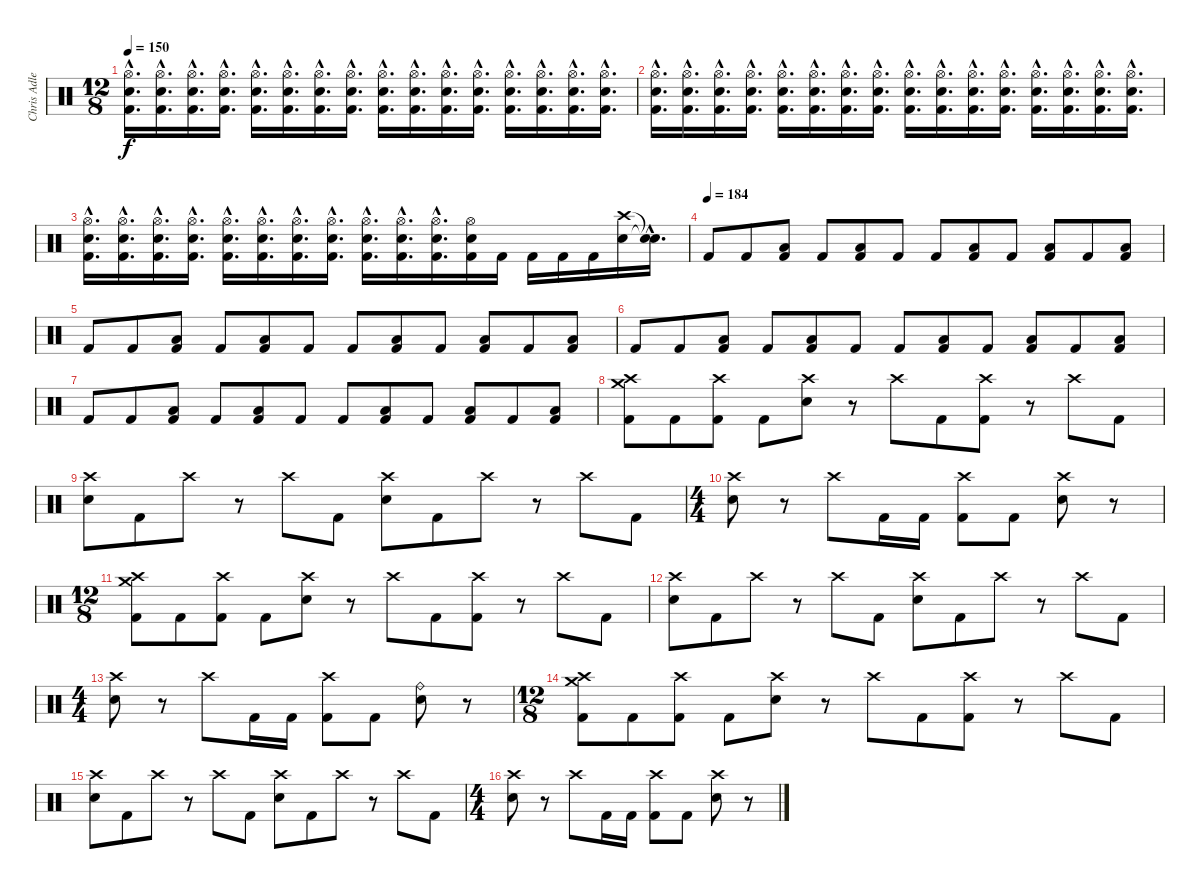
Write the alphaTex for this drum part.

\track ("Chris Adler" "Chris Adle") {instrument percussion}
\staff {score}
\articulation defaults
\ts (12 8)
\tempo 150
\clef neutral
\ks c
("Hi-Hat (open)"{hac} "Electric Snare (hit)"{hac} "Kick (hit) 2"{hac}).16{d dy f volume 16} ("Hi-Hat (open)"{hac} "Electric Snare (hit)"{hac} "Kick (hit) 2"{hac}).16{d} ("Hi-Hat (open)"{hac} "Electric Snare (hit)"{hac} "Kick (hit) 2"{hac}).16{d} ("Hi-Hat (open)"{hac} "Electric Snare (hit)"{hac} "Kick (hit) 2"{hac}).16{d} ("Hi-Hat (open)"{hac} "Electric Snare (hit)"{hac} "Kick (hit) 2"{hac}).16{d} ("Hi-Hat (open)"{hac} "Electric Snare (hit)"{hac} "Kick (hit) 2"{hac}).16{d} ("Hi-Hat (open)"{hac} "Electric Snare (hit)"{hac} "Kick (hit) 2"{hac}).16{d} ("Hi-Hat (open)"{hac} "Electric Snare (hit)"{hac} "Kick (hit) 2"{hac}).16{d} ("Hi-Hat (open)"{hac} "Electric Snare (hit)"{hac} "Kick (hit) 2"{hac}).16{d} ("Hi-Hat (open)"{hac} "Electric Snare (hit)"{hac} "Kick (hit) 2"{hac}).16{d} ("Hi-Hat (open)"{hac} "Electric Snare (hit)"{hac} "Kick (hit) 2"{hac}).16{d} ("Hi-Hat (open)"{hac} "Electric Snare (hit)"{hac} "Kick (hit) 2"{hac}).16{d} ("Hi-Hat (open)"{hac} "Electric Snare (hit)"{hac} "Kick (hit) 2"{hac}).16{d} ("Hi-Hat (open)"{hac} "Electric Snare (hit)"{hac} "Kick (hit) 2"{hac}).16{d} ("Hi-Hat (open)"{hac} "Electric Snare (hit)"{hac} "Kick (hit) 2"{hac}).16{d} ("Hi-Hat (open)"{hac} "Electric Snare (hit)"{hac} "Kick (hit) 2"{hac}).16{d} |
("Hi-Hat (open)"{hac} "Electric Snare (hit)"{hac} "Kick (hit) 2"{hac}).16{d volume 16} ("Hi-Hat (open)"{hac} "Electric Snare (hit)"{hac} "Kick (hit) 2"{hac}).16{d} ("Hi-Hat (open)"{hac} "Electric Snare (hit)"{hac} "Kick (hit) 2"{hac}).16{d} ("Hi-Hat (open)"{hac} "Electric Snare (hit)"{hac} "Kick (hit) 2"{hac}).16{d} ("Hi-Hat (open)"{hac} "Electric Snare (hit)"{hac} "Kick (hit) 2"{hac}).16{d} ("Hi-Hat (open)"{hac} "Electric Snare (hit)"{hac} "Kick (hit) 2"{hac}).16{d} ("Hi-Hat (open)"{hac} "Electric Snare (hit)"{hac} "Kick (hit) 2"{hac}).16{d} ("Hi-Hat (open)"{hac} "Electric Snare (hit)"{hac} "Kick (hit) 2"{hac}).16{d} ("Hi-Hat (open)"{hac} "Electric Snare (hit)"{hac} "Kick (hit) 2"{hac}).16{d} ("Hi-Hat (open)"{hac} "Electric Snare (hit)"{hac} "Kick (hit) 2"{hac}).16{d} ("Hi-Hat (open)"{hac} "Electric Snare (hit)"{hac} "Kick (hit) 2"{hac}).16{d} ("Hi-Hat (open)"{hac} "Electric Snare (hit)"{hac} "Kick (hit) 2"{hac}).16{d} ("Hi-Hat (open)"{hac} "Electric Snare (hit)"{hac} "Kick (hit) 2"{hac}).16{d} ("Hi-Hat (open)"{hac} "Electric Snare (hit)"{hac} "Kick (hit) 2"{hac}).16{d} ("Hi-Hat (open)"{hac} "Electric Snare (hit)"{hac} "Kick (hit) 2"{hac}).16{d} ("Hi-Hat (open)"{hac} "Electric Snare (hit)"{hac} "Kick (hit) 2"{hac}).16{d} |
("Hi-Hat (open)"{hac} "Electric Snare (hit)"{hac} "Kick (hit) 2"{hac}).16{d volume 16} ("Hi-Hat (open)"{hac} "Electric Snare (hit)"{hac} "Kick (hit) 2"{hac}).16{d} ("Hi-Hat (open)"{hac} "Electric Snare (hit)"{hac} "Kick (hit) 2"{hac}).16{d} ("Hi-Hat (open)"{hac} "Electric Snare (hit)"{hac} "Kick (hit) 2"{hac}).16{d} ("Hi-Hat (open)"{hac} "Electric Snare (hit)"{hac} "Kick (hit) 2"{hac}).16{d} ("Hi-Hat (open)"{hac} "Electric Snare (hit)"{hac} "Kick (hit) 2"{hac}).16{d} ("Hi-Hat (open)"{hac} "Electric Snare (hit)"{hac} "Kick (hit) 2"{hac}).16{d} ("Hi-Hat (open)"{hac} "Electric Snare (hit)"{hac} "Kick (hit) 2"{hac}).16{d} ("Hi-Hat (open)"{hac} "Electric Snare (hit)"{hac} "Kick (hit) 2"{hac}).16{d} ("Hi-Hat (open)"{hac} "Electric Snare (hit)"{hac} "Kick (hit) 2"{hac}).16{d} ("Hi-Hat (open)"{hac} "Electric Snare (hit)"{hac} "Kick (hit) 2"{hac}).16{d} ("Hi-Hat (open)" "Electric Snare (hit)" "Kick (hit) 2").16 "Kick (hit) 2".16 "Kick (hit) 2".16 "Kick (hit) 2".16 "Kick (hit) 2".16 ("Crash high (hit)" "Electric Snare (hit)").16 ("Snare (hit)"{hac t} "Snare (hit)"{hac t}).16{d} |
\tempo (184)
"Kick (hit) 2".8 "Kick (hit) 2".8 ("Low Floor Tom (hit)" "Kick (hit) 2").8 "Kick (hit) 2".8 ("Low Floor Tom (hit)" "Kick (hit) 2").8 "Kick (hit) 2".8 "Kick (hit) 2".8 ("Low Floor Tom (hit)" "Kick (hit) 2").8 "Kick (hit) 2".8 ("Low Floor Tom (hit)" "Kick (hit) 2").8 "Kick (hit) 2".8 ("Low Floor Tom (hit)" "Kick (hit) 2").8 |
"Kick (hit) 2".8 "Kick (hit) 2".8 ("Low Floor Tom (hit)" "Kick (hit) 2").8 "Kick (hit) 2".8 ("Low Floor Tom (hit)" "Kick (hit) 2").8 "Kick (hit) 2".8 "Kick (hit) 2".8 ("Low Floor Tom (hit)" "Kick (hit) 2").8 "Kick (hit) 2".8 ("Low Floor Tom (hit)" "Kick (hit) 2").8 "Kick (hit) 2".8 ("Low Floor Tom (hit)" "Kick (hit) 2").8 |
"Kick (hit) 2".8 "Kick (hit) 2".8 ("Low Floor Tom (hit)" "Kick (hit) 2").8 "Kick (hit) 2".8 ("Low Floor Tom (hit)" "Kick (hit) 2").8 "Kick (hit) 2".8 "Kick (hit) 2".8 ("Low Floor Tom (hit)" "Kick (hit) 2").8 "Kick (hit) 2".8 ("Low Floor Tom (hit)" "Kick (hit) 2").8 "Kick (hit) 2".8 ("Low Floor Tom (hit)" "Kick (hit) 2").8 |
"Kick (hit) 2".8 "Kick (hit) 2".8 ("Low Floor Tom (hit)" "Kick (hit) 2").8 "Kick (hit) 2".8 ("Low Floor Tom (hit)" "Kick (hit) 2").8 "Kick (hit) 2".8 "Kick (hit) 2".8 ("Low Floor Tom (hit)" "Kick (hit) 2").8 "Kick (hit) 2".8 ("Low Floor Tom (hit)" "Kick (hit) 2").8 "Kick (hit) 2".8 ("Low Floor Tom (hit)" "Kick (hit) 2").8 |
("Crash high (hit)" "Crash medium (hit)" "Kick (hit) 2").8 "Kick (hit) 2".8 ("Crash high (hit)" "Kick (hit) 2").8 "Kick (hit) 2".8 ("Crash high (hit)" "Electric Snare (hit)").8 r.8 "Crash high (hit)".8 "Kick (hit) 2".8 ("Crash high (hit)" "Kick (hit) 2").8 r.8 "Crash high (hit)".8 "Kick (hit) 2".8 |
("Crash high (hit)" "Electric Snare (hit)").8 "Kick (hit) 2".8 "Crash high (hit)".8 r.8 "Crash high (hit)".8 "Kick (hit) 2".8 ("Crash high (hit)" "Electric Snare (hit)").8 "Kick (hit) 2".8 "Crash high (hit)".8 r.8 "Crash high (hit)".8 "Kick (hit) 2".8 |
\ts (4 4)
("Crash high (hit)" "Electric Snare (hit)").8 r.8 "Crash high (hit)".8 "Kick (hit) 2".16 "Kick (hit) 2".16 ("Crash high (hit)" "Kick (hit) 2").8 "Kick (hit) 2".8 ("Crash high (hit)" "Electric Snare (hit)").8 r.8 |
\ts (12 8)
("Crash high (hit)" "Crash medium (hit)" "Kick (hit) 2").8 "Kick (hit) 2".8 ("Crash high (hit)" "Kick (hit) 2").8 "Kick (hit) 2".8 ("Crash high (hit)" "Electric Snare (hit)").8 r.8 "Crash high (hit)".8 "Kick (hit) 2".8 ("Crash high (hit)" "Kick (hit) 2").8 r.8 "Crash high (hit)".8 "Kick (hit) 2".8 |
("Crash high (hit)" "Electric Snare (hit)").8 "Kick (hit) 2".8 "Crash high (hit)".8 r.8 "Crash high (hit)".8 "Kick (hit) 2".8 ("Crash high (hit)" "Electric Snare (hit)").8 "Kick (hit) 2".8 "Crash high (hit)".8 r.8 "Crash high (hit)".8 "Kick (hit) 2".8 |
\ts (4 4)
("Crash high (hit)" "Electric Snare (hit)").8 r.8 "Crash high (hit)".8 "Kick (hit) 2".16 "Kick (hit) 2".16 ("Crash high (hit)" "Kick (hit) 2").8 "Kick (hit) 2".8 ("Ride (bell)" "Electric Snare (hit)").8 r.8 |
\ts (12 8)
("Crash high (hit)" "Crash medium (hit)" "Kick (hit) 2").8 "Kick (hit) 2".8 ("Crash high (hit)" "Kick (hit) 2").8 "Kick (hit) 2".8 ("Crash high (hit)" "Electric Snare (hit)").8 r.8 "Crash high (hit)".8 "Kick (hit) 2".8 ("Crash high (hit)" "Kick (hit) 2").8 r.8 "Crash high (hit)".8 "Kick (hit) 2".8 |
("Crash high (hit)" "Electric Snare (hit)").8 "Kick (hit) 2".8 "Crash high (hit)".8 r.8 "Crash high (hit)".8 "Kick (hit) 2".8 ("Crash high (hit)" "Electric Snare (hit)").8 "Kick (hit) 2".8 "Crash high (hit)".8 r.8 "Crash high (hit)".8 "Kick (hit) 2".8 |
\ts (4 4)
("Crash high (hit)" "Electric Snare (hit)").8 r.8 "Crash high (hit)".8 "Kick (hit) 2".16 "Kick (hit) 2".16 ("Crash high (hit)" "Kick (hit) 2").8 "Kick (hit) 2".8 ("Crash high (hit)" "Electric Snare (hit)").8 r.8
